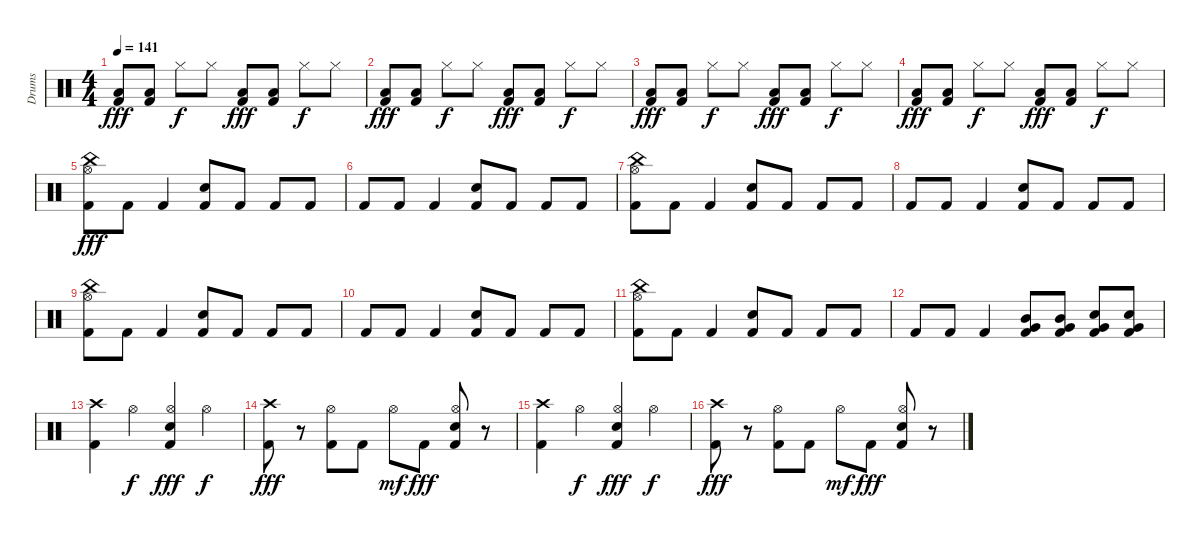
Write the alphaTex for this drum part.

\track ("Drums" "Drums") {instrument percussion}
\staff {score}
\articulation defaults
\ts (4 4)
\tempo 141
\clef neutral
\ks c
("Kick (hit) 2" "Low Tom (hit)").8{dy fff} ("Kick (hit) 2" "Low Tom (hit)").8 "Hi-Hat (closed)".8{dy f} "Hi-Hat (closed)".8 ("Kick (hit) 2" "Low Tom (hit)").8{dy fff} ("Kick (hit) 2" "Low Tom (hit)").8 "Hi-Hat (closed)".8{dy f} "Hi-Hat (closed)".8 |
("Kick (hit) 2" "Low Tom (hit)").8{dy fff} ("Kick (hit) 2" "Low Tom (hit)").8 "Hi-Hat (closed)".8{dy f} "Hi-Hat (closed)".8 ("Kick (hit) 2" "Low Tom (hit)").8{dy fff} ("Kick (hit) 2" "Low Tom (hit)").8 "Hi-Hat (closed)".8{dy f} "Hi-Hat (closed)".8 |
("Kick (hit) 2" "Low Tom (hit)").8{dy fff} ("Kick (hit) 2" "Low Tom (hit)").8 "Hi-Hat (closed)".8{dy f} "Hi-Hat (closed)".8 ("Kick (hit) 2" "Low Tom (hit)").8{dy fff} ("Kick (hit) 2" "Low Tom (hit)").8 "Hi-Hat (closed)".8{dy f} "Hi-Hat (closed)".8 |
("Kick (hit) 2" "Low Tom (hit)").8{dy fff} ("Kick (hit) 2" "Low Tom (hit)").8 "Hi-Hat (closed)".8{dy f} "Hi-Hat (closed)".8 ("Kick (hit) 2" "Low Tom (hit)").8{dy fff} ("Kick (hit) 2" "Low Tom (hit)").8 "Hi-Hat (closed)".8{dy f} "Hi-Hat (closed)".8 |
("Kick (hit) 2" "China (hit)" "Hi-Hat (open)").8{dy fff} "Kick (hit) 2".8 "Kick (hit) 2".4 ("Kick (hit) 2" "Snare (hit) 2").8 "Kick (hit) 2".8 "Kick (hit) 2".8 "Kick (hit) 2".8 |
"Kick (hit) 2".8 "Kick (hit) 2".8 "Kick (hit) 2".4 ("Kick (hit) 2" "Snare (hit) 2").8 "Kick (hit) 2".8 "Kick (hit) 2".8 "Kick (hit) 2".8 |
("Kick (hit) 2" "China (hit)" "Hi-Hat (open)").8 "Kick (hit) 2".8 "Kick (hit) 2".4 ("Kick (hit) 2" "Snare (hit) 2").8 "Kick (hit) 2".8 "Kick (hit) 2".8 "Kick (hit) 2".8 |
"Kick (hit) 2".8 "Kick (hit) 2".8 "Kick (hit) 2".4 ("Kick (hit) 2" "Snare (hit) 2").8 "Kick (hit) 2".8 "Kick (hit) 2".8 "Kick (hit) 2".8 |
("Kick (hit) 2" "China (hit)" "Hi-Hat (open)").8 "Kick (hit) 2".8 "Kick (hit) 2".4 ("Kick (hit) 2" "Snare (hit) 2").8 "Kick (hit) 2".8 "Kick (hit) 2".8 "Kick (hit) 2".8 |
"Kick (hit) 2".8 "Kick (hit) 2".8 "Kick (hit) 2".4 ("Kick (hit) 2" "Snare (hit) 2").8 "Kick (hit) 2".8 "Kick (hit) 2".8 "Kick (hit) 2".8 |
("Kick (hit) 2" "China (hit)" "Hi-Hat (open)").8 "Kick (hit) 2".8 "Kick (hit) 2".4 ("Kick (hit) 2" "Snare (hit) 2").8 "Kick (hit) 2".8 "Kick (hit) 2".8 "Kick (hit) 2".8 |
"Kick (hit) 2".8 "Kick (hit) 2".8 "Kick (hit) 2".4 ("Kick (hit) 2" "Very Low Tom (hit)" "Mid Tom (hit)").8 ("Kick (hit) 2" "Very Low Tom (hit)" "Mid Tom (hit)").8 ("Kick (hit) 2" "Very Low Tom (hit)" "Electric Snare (hit)").8 ("Kick (hit) 2" "Very Low Tom (hit)" "Electric Snare (hit)").8 |
("Crash high (hit)" "Kick (hit) 2").4 "Hi-Hat (open)".4{dy f} ("Hi-Hat (open)" "Electric Snare (hit)" "Kick (hit) 2").4{dy fff} "Hi-Hat (open)".4{dy f} |
("Crash high (hit)" "Kick (hit) 2").8{dy fff} r.8 ("Hi-Hat (open)" "Kick (hit) 2").8 "Kick (hit) 2".8 "Hi-Hat (open)".8{dy mf} "Kick (hit) 2".8{dy fff} ("Hi-Hat (open)" "Electric Snare (hit)" "Kick (hit) 2").8 r.8 |
("Crash high (hit)" "Kick (hit) 2").4 "Hi-Hat (open)".4{dy f} ("Hi-Hat (open)" "Electric Snare (hit)" "Kick (hit) 2").4{dy fff} "Hi-Hat (open)".4{dy f} |
("Crash high (hit)" "Kick (hit) 2").8{dy fff} r.8 ("Hi-Hat (open)" "Kick (hit) 2").8 "Kick (hit) 2".8 "Hi-Hat (open)".8{dy mf} "Kick (hit) 2".8{dy fff} ("Hi-Hat (open)" "Electric Snare (hit)" "Kick (hit) 2").8 r.8
